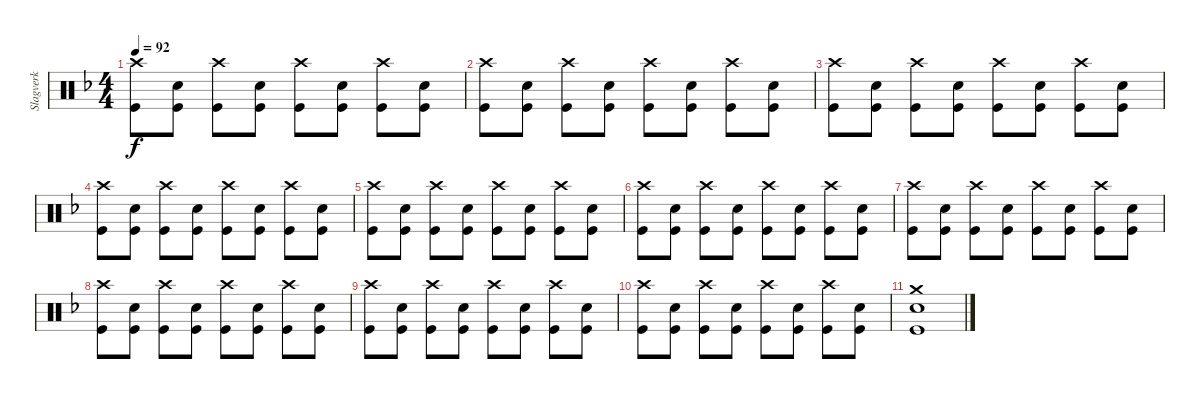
\track ("Slagverk" "Slagverk") {instrument percussion}
\staff {score}
\articulation defaults
\ts (4 4)
\tempo 92
\clef neutral
\ks f
("Crash high (hit)" "Kick (hit)").8{dy f} ("Snare (hit) 2" "Kick (hit)").8 ("Crash high (hit)" "Kick (hit)").8 ("Snare (hit) 2" "Kick (hit)").8 ("Crash high (hit)" "Kick (hit)").8 ("Snare (hit) 2" "Kick (hit)").8 ("Crash high (hit)" "Kick (hit)").8 ("Snare (hit) 2" "Kick (hit)").8 |
("Crash high (hit)" "Kick (hit)").8 ("Snare (hit) 2" "Kick (hit)").8 ("Crash high (hit)" "Kick (hit)").8 ("Snare (hit) 2" "Kick (hit)").8 ("Crash high (hit)" "Kick (hit)").8 ("Snare (hit) 2" "Kick (hit)").8 ("Crash high (hit)" "Kick (hit)").8 ("Snare (hit) 2" "Kick (hit)").8 |
("Crash high (hit)" "Kick (hit)").8 ("Snare (hit) 2" "Kick (hit)").8 ("Crash high (hit)" "Kick (hit)").8 ("Snare (hit) 2" "Kick (hit)").8 ("Crash high (hit)" "Kick (hit)").8 ("Snare (hit) 2" "Kick (hit)").8 ("Crash high (hit)" "Kick (hit)").8 ("Snare (hit) 2" "Kick (hit)").8 |
("Crash high (hit)" "Kick (hit)").8 ("Snare (hit) 2" "Kick (hit)").8 ("Crash high (hit)" "Kick (hit)").8 ("Snare (hit) 2" "Kick (hit)").8 ("Crash high (hit)" "Kick (hit)").8 ("Snare (hit) 2" "Kick (hit)").8 ("Crash high (hit)" "Kick (hit)").8 ("Snare (hit) 2" "Kick (hit)").8 |
("Crash high (hit)" "Kick (hit)").8 ("Snare (hit) 2" "Kick (hit)").8 ("Crash high (hit)" "Kick (hit)").8 ("Snare (hit) 2" "Kick (hit)").8 ("Crash high (hit)" "Kick (hit)").8 ("Snare (hit) 2" "Kick (hit)").8 ("Crash high (hit)" "Kick (hit)").8 ("Snare (hit) 2" "Kick (hit)").8 |
("Crash high (hit)" "Kick (hit)").8 ("Snare (hit) 2" "Kick (hit)").8 ("Crash high (hit)" "Kick (hit)").8 ("Snare (hit) 2" "Kick (hit)").8 ("Crash high (hit)" "Kick (hit)").8 ("Snare (hit) 2" "Kick (hit)").8 ("Crash high (hit)" "Kick (hit)").8 ("Snare (hit) 2" "Kick (hit)").8 |
("Crash high (hit)" "Kick (hit)").8 ("Snare (hit) 2" "Kick (hit)").8 ("Crash high (hit)" "Kick (hit)").8 ("Snare (hit) 2" "Kick (hit)").8 ("Crash high (hit)" "Kick (hit)").8 ("Snare (hit) 2" "Kick (hit)").8 ("Crash high (hit)" "Kick (hit)").8 ("Snare (hit) 2" "Kick (hit)").8 |
("Crash high (hit)" "Kick (hit)").8 ("Snare (hit) 2" "Kick (hit)").8 ("Crash high (hit)" "Kick (hit)").8 ("Snare (hit) 2" "Kick (hit)").8 ("Crash high (hit)" "Kick (hit)").8 ("Snare (hit) 2" "Kick (hit)").8 ("Crash high (hit)" "Kick (hit)").8 ("Snare (hit) 2" "Kick (hit)").8 |
("Crash high (hit)" "Kick (hit)").8 ("Snare (hit) 2" "Kick (hit)").8 ("Crash high (hit)" "Kick (hit)").8 ("Snare (hit) 2" "Kick (hit)").8 ("Crash high (hit)" "Kick (hit)").8 ("Snare (hit) 2" "Kick (hit)").8 ("Crash high (hit)" "Kick (hit)").8 ("Snare (hit) 2" "Kick (hit)").8 |
("Crash high (hit)" "Kick (hit)").8 ("Snare (hit) 2" "Kick (hit)").8 ("Crash high (hit)" "Kick (hit)").8 ("Snare (hit) 2" "Kick (hit)").8 ("Crash high (hit)" "Kick (hit)").8 ("Snare (hit) 2" "Kick (hit)").8 ("Crash high (hit)" "Kick (hit)").8 ("Snare (hit) 2" "Kick (hit)").8 |
("Snare (hit) 2" "Kick (hit)" "Crash medium (hit)").1
